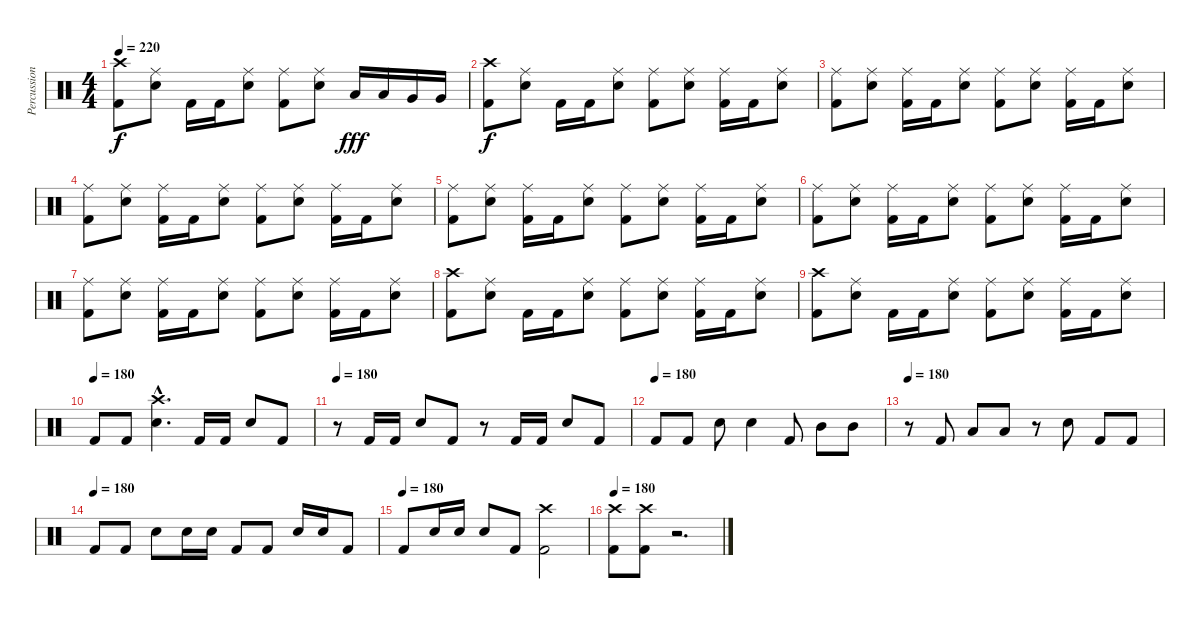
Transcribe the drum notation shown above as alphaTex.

\track ("Percussions" "Percussion") {instrument percussion}
\staff {score}
\articulation defaults
\ts (4 4)
\tempo 220
\clef neutral
\ks c
("Crash high (hit)" "Kick (hit) 2").8{dy f} ("Ride (middle)" "Snare (hit) 2").8 "Kick (hit) 2".16 "Kick (hit) 2".16 ("Ride (middle)" "Snare (hit) 2").8 ("Ride (middle)" "Kick (hit) 2").8 ("Ride (middle)" "Snare (hit) 2").8 "Low Tom (hit)".16{dy fff} "Low Tom (hit)".16 "Very Low Tom (hit)".16 "Very Low Tom (hit)".16 |
("Crash high (hit)" "Kick (hit) 2").8{dy f} ("Ride (middle)" "Snare (hit) 2").8 "Kick (hit) 2".16 "Kick (hit) 2".16 ("Ride (middle)" "Snare (hit) 2").8 ("Ride (middle)" "Kick (hit) 2").8 ("Ride (middle)" "Snare (hit) 2").8 ("Ride (middle)" "Kick (hit) 2").16 "Kick (hit) 2".16 ("Ride (middle)" "Snare (hit) 2").8 |
("Ride (middle)" "Kick (hit) 2").8 ("Ride (middle)" "Snare (hit) 2").8 ("Ride (middle)" "Kick (hit) 2").16 "Kick (hit) 2".16 ("Ride (middle)" "Snare (hit) 2").8 ("Ride (middle)" "Kick (hit) 2").8 ("Ride (middle)" "Snare (hit) 2").8 ("Ride (middle)" "Kick (hit) 2").16 "Kick (hit) 2".16 ("Ride (middle)" "Snare (hit) 2").8 |
("Ride (middle)" "Kick (hit) 2").8 ("Ride (middle)" "Snare (hit) 2").8 ("Ride (middle)" "Kick (hit) 2").16 "Kick (hit) 2".16 ("Ride (middle)" "Snare (hit) 2").8 ("Ride (middle)" "Kick (hit) 2").8 ("Ride (middle)" "Snare (hit) 2").8 ("Ride (middle)" "Kick (hit) 2").16 "Kick (hit) 2".16 ("Ride (middle)" "Snare (hit) 2").8 |
("Ride (middle)" "Kick (hit) 2").8 ("Ride (middle)" "Snare (hit) 2").8 ("Ride (middle)" "Kick (hit) 2").16 "Kick (hit) 2".16 ("Ride (middle)" "Snare (hit) 2").8 ("Ride (middle)" "Kick (hit) 2").8 ("Ride (middle)" "Snare (hit) 2").8 ("Ride (middle)" "Kick (hit) 2").16 "Kick (hit) 2".16 ("Ride (middle)" "Snare (hit) 2").8 |
("Ride (middle)" "Kick (hit) 2").8 ("Ride (middle)" "Snare (hit) 2").8 ("Ride (middle)" "Kick (hit) 2").16 "Kick (hit) 2".16 ("Ride (middle)" "Snare (hit) 2").8 ("Ride (middle)" "Kick (hit) 2").8 ("Ride (middle)" "Snare (hit) 2").8 ("Ride (middle)" "Kick (hit) 2").16 "Kick (hit) 2".16 ("Ride (middle)" "Snare (hit) 2").8 |
("Ride (middle)" "Kick (hit) 2").8 ("Ride (middle)" "Snare (hit) 2").8 ("Ride (middle)" "Kick (hit) 2").16 "Kick (hit) 2".16 ("Ride (middle)" "Snare (hit) 2").8 ("Ride (middle)" "Kick (hit) 2").8 ("Ride (middle)" "Snare (hit) 2").8 ("Ride (middle)" "Kick (hit) 2").16 "Kick (hit) 2".16 ("Ride (middle)" "Snare (hit) 2").8 |
("Crash high (hit)" "Kick (hit) 2").8 ("Ride (middle)" "Snare (hit) 2").8 "Kick (hit) 2".16 "Kick (hit) 2".16 ("Ride (middle)" "Snare (hit) 2").8 ("Ride (middle)" "Kick (hit) 2").8 ("Ride (middle)" "Snare (hit) 2").8 ("Ride (middle)" "Kick (hit) 2").16 "Kick (hit) 2".16 ("Ride (middle)" "Snare (hit) 2").8 |
("Crash high (hit)" "Kick (hit) 2").8 ("Ride (middle)" "Snare (hit) 2").8 "Kick (hit) 2".16 "Kick (hit) 2".16 ("Ride (middle)" "Snare (hit) 2").8 ("Ride (middle)" "Kick (hit) 2").8 ("Ride (middle)" "Snare (hit) 2").8 ("Ride (middle)" "Kick (hit) 2").16 "Kick (hit) 2".16 ("Ride (middle)" "Snare (hit) 2").8 |
\tempo (180)
"Kick (hit) 2".8 "Kick (hit) 2".8 ("Crash high (hit)"{hac} "Snare (hit) 2"{hac}).4{d} "Kick (hit) 2".16 "Kick (hit) 2".16 "Snare (hit) 2".8 "Kick (hit) 2".8 |
\tempo 180
r.8 "Kick (hit) 2".16 "Kick (hit) 2".16 "Snare (hit) 2".8 "Kick (hit) 2".8 r.8 "Kick (hit) 2".16 "Kick (hit) 2".16 "Snare (hit) 2".8 "Kick (hit) 2".8 |
\tempo (180)
"Kick (hit) 2".8 "Kick (hit) 2".8 "Snare (hit) 2".8 "Snare (hit) 2".4 "Kick (hit) 2".8 "Mid Tom (hit)".8 "Mid Tom (hit)".8 |
\tempo 180
r.8 "Kick (hit) 2".8 "Low Tom (hit)".8 "Low Tom (hit)".8 r.8 "Snare (hit) 2".8 "Kick (hit) 2".8 "Kick (hit) 2".8 |
\tempo (180)
"Kick (hit) 2".8 "Kick (hit) 2".8 "Snare (hit) 2".8 "Snare (hit) 2".16 "Snare (hit) 2".16 "Kick (hit) 2".8 "Kick (hit) 2".8 "Snare (hit) 2".16 "Snare (hit) 2".16 "Kick (hit) 2".8 |
\tempo (180)
"Kick (hit) 2".8 "Snare (hit) 2".16 "Snare (hit) 2".16 "Snare (hit) 2".8 "Kick (hit) 2".8 ("Crash high (hit)" "Kick (hit) 2").2 |
\tempo 180
("Crash high (hit)" "Kick (hit) 2").8 ("Crash high (hit)" "Kick (hit) 2").8 r.2{d}
